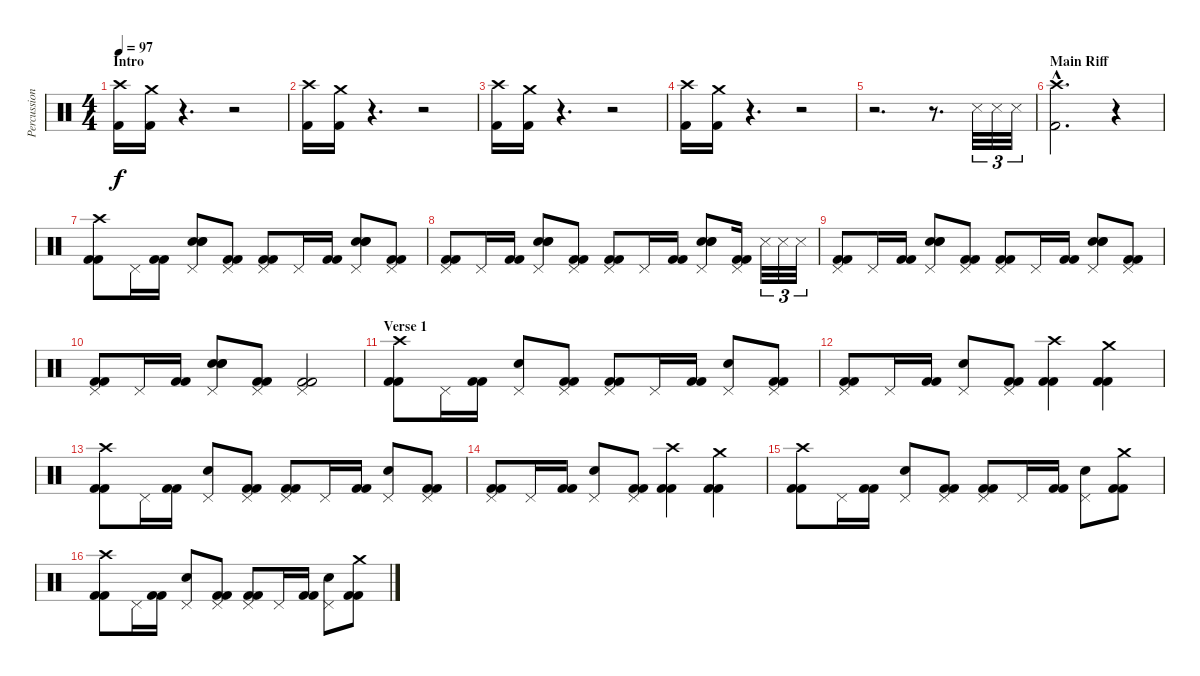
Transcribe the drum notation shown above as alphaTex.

\track ("Percussions" "Percussion") {instrument percussion}
\staff {score}
\articulation defaults
\ts (4 4)
\section ("" "Intro")
\tempo 97
\clef neutral
\ks c
("Crash high (hit)" "Kick (hit) 2").16{dy f} ("Crash medium (hit)" "Kick (hit) 2").16 r.4{d} r.2 |
("Crash high (hit)" "Kick (hit) 2").16 ("Crash medium (hit)" "Kick (hit) 2").16 r.4{d} r.2 |
("Crash high (hit)" "Kick (hit) 2").16 ("Crash medium (hit)" "Kick (hit) 2").16 r.4{d} r.2 |
("Crash high (hit)" "Kick (hit) 2").16 ("Crash medium (hit)" "Kick (hit) 2").16 r.4{d} r.2 |
r.2{d} r.8{d} "Snare (side stick) 3".32{tu (3 2)} "Snare (side stick) 3".32{tu (3 2)} "Snare (side stick) 3".32{tu (3 2)} |
\section ("" "Main Riff")
("Crash high (hit)"{hac} "Kick (hit) 2"{hac}).2{d} r.4 |
("Crash high (hit)" "Kick (hit) 2" "Kick (hit) 2").8 "Pedal Hi-Hat (hit)".16 ("Kick (hit) 2" "Kick (hit) 2").16 ("Pedal Hi-Hat (hit)" "Hand Clap (hit)" "Hand Clap (hit)" "Hand Clap (hit)").8 ("Pedal Hi-Hat (hit)" "Kick (hit) 2" "Kick (hit) 2").8 ("Pedal Hi-Hat (hit)" "Kick (hit) 2" "Kick (hit) 2").8 "Pedal Hi-Hat (hit)".16 ("Kick (hit) 2" "Kick (hit) 2").16 ("Pedal Hi-Hat (hit)" "Hand Clap (hit)" "Hand Clap (hit)" "Hand Clap (hit)").8 ("Pedal Hi-Hat (hit)" "Kick (hit) 2" "Kick (hit) 2").8 |
("Pedal Hi-Hat (hit)" "Kick (hit) 2" "Kick (hit) 2").8 "Pedal Hi-Hat (hit)".16 ("Kick (hit) 2" "Kick (hit) 2").16 ("Pedal Hi-Hat (hit)" "Hand Clap (hit)" "Hand Clap (hit)" "Hand Clap (hit)").8 ("Pedal Hi-Hat (hit)" "Kick (hit) 2" "Kick (hit) 2").8 ("Pedal Hi-Hat (hit)" "Kick (hit) 2" "Kick (hit) 2").8 "Pedal Hi-Hat (hit)".16 ("Kick (hit) 2" "Kick (hit) 2").16 ("Pedal Hi-Hat (hit)" "Hand Clap (hit)" "Hand Clap (hit)" "Hand Clap (hit)").8 ("Pedal Hi-Hat (hit)" "Kick (hit) 2" "Kick (hit) 2").16 "Snare (side stick) 3".32{tu (3 2)} "Snare (side stick) 3".32{tu (3 2)} "Snare (side stick) 3".32{tu (3 2)} |
("Pedal Hi-Hat (hit)" "Kick (hit) 2" "Kick (hit) 2").8 "Pedal Hi-Hat (hit)".16 ("Kick (hit) 2" "Kick (hit) 2").16 ("Pedal Hi-Hat (hit)" "Hand Clap (hit)" "Hand Clap (hit)" "Hand Clap (hit)").8 ("Pedal Hi-Hat (hit)" "Kick (hit) 2" "Kick (hit) 2").8 ("Pedal Hi-Hat (hit)" "Kick (hit) 2" "Kick (hit) 2").8 "Pedal Hi-Hat (hit)".16 ("Kick (hit) 2" "Kick (hit) 2").16 ("Pedal Hi-Hat (hit)" "Hand Clap (hit)" "Hand Clap (hit)" "Hand Clap (hit)").8 ("Pedal Hi-Hat (hit)" "Kick (hit) 2" "Kick (hit) 2").8 |
("Pedal Hi-Hat (hit)" "Kick (hit) 2" "Kick (hit) 2").8 "Pedal Hi-Hat (hit)".16 ("Kick (hit) 2" "Kick (hit) 2").16 ("Pedal Hi-Hat (hit)" "Hand Clap (hit)" "Hand Clap (hit)" "Hand Clap (hit)").8 ("Pedal Hi-Hat (hit)" "Kick (hit) 2" "Kick (hit) 2").8 ("Pedal Hi-Hat (hit)" "Kick (hit) 2" "Kick (hit) 2").2 |
\section ("" "Verse 1")
("Crash high (hit)" "Kick (hit) 2" "Kick (hit) 2").8 "Pedal Hi-Hat (hit)".16 ("Kick (hit) 2" "Kick (hit) 2").16 ("Pedal Hi-Hat (hit)" "Electric Snare (hit)").8 ("Pedal Hi-Hat (hit)" "Kick (hit) 2" "Kick (hit) 2").8 ("Pedal Hi-Hat (hit)" "Kick (hit) 2" "Kick (hit) 2").8 "Pedal Hi-Hat (hit)".16 ("Kick (hit) 2" "Kick (hit) 2").16 ("Pedal Hi-Hat (hit)" "Electric Snare (hit)").8 ("Pedal Hi-Hat (hit)" "Kick (hit) 2" "Kick (hit) 2").8 |
("Pedal Hi-Hat (hit)" "Kick (hit) 2" "Kick (hit) 2").8 "Pedal Hi-Hat (hit)".16 ("Kick (hit) 2" "Kick (hit) 2").16 ("Pedal Hi-Hat (hit)" "Electric Snare (hit)").8 ("Pedal Hi-Hat (hit)" "Kick (hit) 2" "Kick (hit) 2").8 ("Crash high (hit)" "Kick (hit) 2" "Kick (hit) 2").4 ("Crash medium (hit)" "Kick (hit) 2" "Kick (hit) 2").4 |
("Crash high (hit)" "Kick (hit) 2" "Kick (hit) 2").8 "Pedal Hi-Hat (hit)".16 ("Kick (hit) 2" "Kick (hit) 2").16 ("Pedal Hi-Hat (hit)" "Electric Snare (hit)").8 ("Pedal Hi-Hat (hit)" "Kick (hit) 2" "Kick (hit) 2").8 ("Pedal Hi-Hat (hit)" "Kick (hit) 2" "Kick (hit) 2").8 "Pedal Hi-Hat (hit)".16 ("Kick (hit) 2" "Kick (hit) 2").16 ("Pedal Hi-Hat (hit)" "Electric Snare (hit)").8 ("Pedal Hi-Hat (hit)" "Kick (hit) 2" "Kick (hit) 2").8 |
("Pedal Hi-Hat (hit)" "Kick (hit) 2" "Kick (hit) 2").8 "Pedal Hi-Hat (hit)".16 ("Kick (hit) 2" "Kick (hit) 2").16 ("Pedal Hi-Hat (hit)" "Electric Snare (hit)").8 ("Pedal Hi-Hat (hit)" "Kick (hit) 2" "Kick (hit) 2").8 ("Crash high (hit)" "Kick (hit) 2" "Kick (hit) 2").4 ("Crash medium (hit)" "Kick (hit) 2" "Kick (hit) 2").4 |
("Crash high (hit)" "Kick (hit) 2" "Kick (hit) 2").8 "Pedal Hi-Hat (hit)".16 ("Kick (hit) 2" "Kick (hit) 2").16 ("Pedal Hi-Hat (hit)" "Electric Snare (hit)").8 ("Pedal Hi-Hat (hit)" "Kick (hit) 2" "Kick (hit) 2").8 ("Pedal Hi-Hat (hit)" "Kick (hit) 2" "Kick (hit) 2").8 "Pedal Hi-Hat (hit)".16 ("Kick (hit) 2" "Kick (hit) 2").16 ("Pedal Hi-Hat (hit)" "Electric Snare (hit)").8 ("Crash medium (hit)" "Kick (hit) 2" "Kick (hit) 2").8 |
("Crash high (hit)" "Kick (hit) 2" "Kick (hit) 2").8 "Pedal Hi-Hat (hit)".16 ("Kick (hit) 2" "Kick (hit) 2").16 ("Pedal Hi-Hat (hit)" "Electric Snare (hit)").8 ("Pedal Hi-Hat (hit)" "Kick (hit) 2" "Kick (hit) 2").8 ("Pedal Hi-Hat (hit)" "Kick (hit) 2" "Kick (hit) 2").8 "Pedal Hi-Hat (hit)".16 ("Kick (hit) 2" "Kick (hit) 2").16 ("Pedal Hi-Hat (hit)" "Electric Snare (hit)").8 ("Crash medium (hit)" "Kick (hit) 2" "Kick (hit) 2").8
